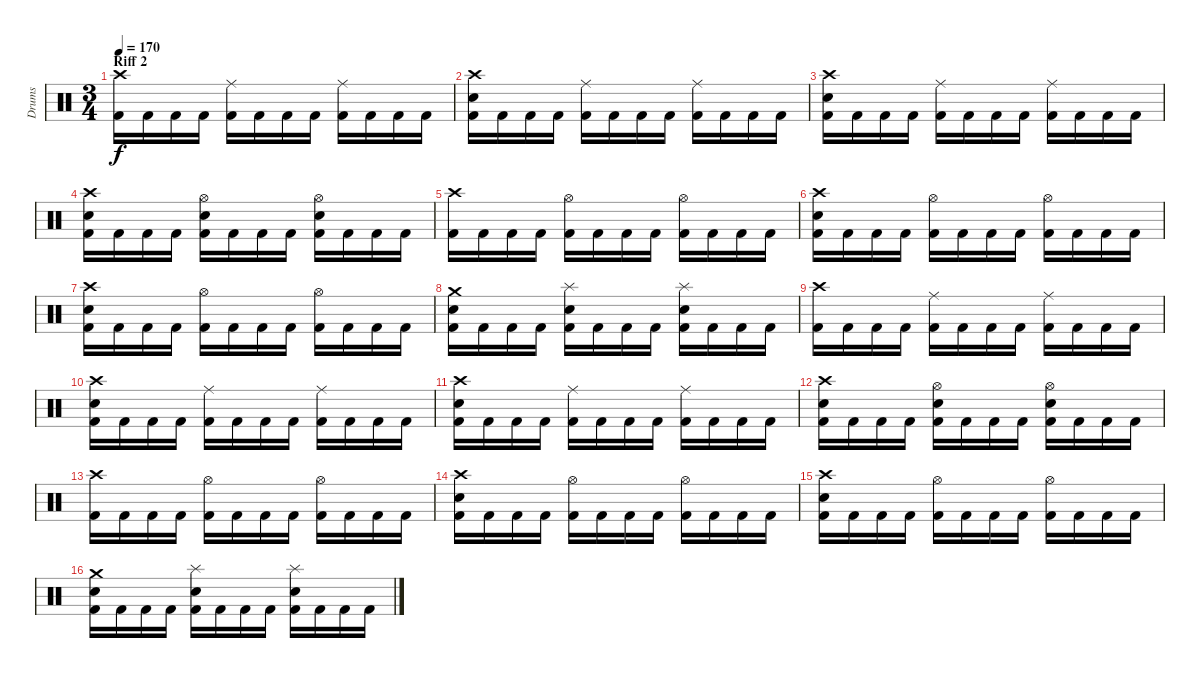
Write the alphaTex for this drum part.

\track ("Drums" "Drums") {instrument percussion}
\staff {score}
\articulation defaults
\ts (3 4)
\section ("" "Riff 2")
\tempo 170
\clef neutral
\ks c
("Crash high (hit)" "Kick (hit) 2").16{dy f} "Kick (hit) 2".16 "Kick (hit) 2".16 "Kick (hit) 2".16 ("Ride (middle)" "Kick (hit) 2").16 "Kick (hit) 2".16 "Kick (hit) 2".16 "Kick (hit) 2".16 ("Ride (middle)" "Kick (hit) 2").16 "Kick (hit) 2".16 "Kick (hit) 2".16 "Kick (hit) 2".16 |
("Crash high (hit)" "Electric Snare (hit)" "Kick (hit) 2").16 "Kick (hit) 2".16 "Kick (hit) 2".16 "Kick (hit) 2".16 ("Ride (middle)" "Kick (hit) 2").16 "Kick (hit) 2".16 "Kick (hit) 2".16 "Kick (hit) 2".16 ("Ride (middle)" "Kick (hit) 2").16 "Kick (hit) 2".16 "Kick (hit) 2".16 "Kick (hit) 2".16 |
("Crash high (hit)" "Electric Snare (hit)" "Kick (hit) 2").16 "Kick (hit) 2".16 "Kick (hit) 2".16 "Kick (hit) 2".16 ("Ride (middle)" "Kick (hit) 2").16 "Kick (hit) 2".16 "Kick (hit) 2".16 "Kick (hit) 2".16 ("Ride (middle)" "Kick (hit) 2").16 "Kick (hit) 2".16 "Kick (hit) 2".16 "Kick (hit) 2".16 |
("Crash high (hit)" "Electric Snare (hit)" "Kick (hit) 2").16 "Kick (hit) 2".16 "Kick (hit) 2".16 "Kick (hit) 2".16 ("Hi-Hat (open)" "Electric Snare (hit)" "Kick (hit) 2").16 "Kick (hit) 2".16 "Kick (hit) 2".16 "Kick (hit) 2".16 ("Hi-Hat (open)" "Electric Snare (hit)" "Kick (hit) 2").16 "Kick (hit) 2".16 "Kick (hit) 2".16 "Kick (hit) 2".16 |
("Crash high (hit)" "Kick (hit) 2").16 "Kick (hit) 2".16 "Kick (hit) 2".16 "Kick (hit) 2".16 ("Hi-Hat (open)" "Kick (hit) 2").16 "Kick (hit) 2".16 "Kick (hit) 2".16 "Kick (hit) 2".16 ("Hi-Hat (open)" "Kick (hit) 2").16 "Kick (hit) 2".16 "Kick (hit) 2".16 "Kick (hit) 2".16 |
("Crash high (hit)" "Electric Snare (hit)" "Kick (hit) 2").16 "Kick (hit) 2".16 "Kick (hit) 2".16 "Kick (hit) 2".16 ("Hi-Hat (open)" "Kick (hit) 2").16 "Kick (hit) 2".16 "Kick (hit) 2".16 "Kick (hit) 2".16 ("Hi-Hat (open)" "Kick (hit) 2").16 "Kick (hit) 2".16 "Kick (hit) 2".16 "Kick (hit) 2".16 |
("Crash high (hit)" "Electric Snare (hit)" "Kick (hit) 2").16 "Kick (hit) 2".16 "Kick (hit) 2".16 "Kick (hit) 2".16 ("Hi-Hat (open)" "Kick (hit) 2").16 "Kick (hit) 2".16 "Kick (hit) 2".16 "Kick (hit) 2".16 ("Hi-Hat (open)" "Kick (hit) 2").16 "Kick (hit) 2".16 "Kick (hit) 2".16 "Kick (hit) 2".16 |
("Crash medium (hit)" "Electric Snare (hit)" "Kick (hit) 2").16 "Kick (hit) 2".16 "Kick (hit) 2".16 "Kick (hit) 2".16 ("Splash (hit)" "Electric Snare (hit)" "Kick (hit) 2").16 "Kick (hit) 2".16 "Kick (hit) 2".16 "Kick (hit) 2".16 ("Splash (hit)" "Electric Snare (hit)" "Kick (hit) 2").16 "Kick (hit) 2".16 "Kick (hit) 2".16 "Kick (hit) 2".16 |
("Crash high (hit)" "Kick (hit) 2").16 "Kick (hit) 2".16 "Kick (hit) 2".16 "Kick (hit) 2".16 ("Ride (middle)" "Kick (hit) 2").16 "Kick (hit) 2".16 "Kick (hit) 2".16 "Kick (hit) 2".16 ("Ride (middle)" "Kick (hit) 2").16 "Kick (hit) 2".16 "Kick (hit) 2".16 "Kick (hit) 2".16 |
("Crash high (hit)" "Electric Snare (hit)" "Kick (hit) 2").16 "Kick (hit) 2".16 "Kick (hit) 2".16 "Kick (hit) 2".16 ("Ride (middle)" "Kick (hit) 2").16 "Kick (hit) 2".16 "Kick (hit) 2".16 "Kick (hit) 2".16 ("Ride (middle)" "Kick (hit) 2").16 "Kick (hit) 2".16 "Kick (hit) 2".16 "Kick (hit) 2".16 |
("Crash high (hit)" "Electric Snare (hit)" "Kick (hit) 2").16 "Kick (hit) 2".16 "Kick (hit) 2".16 "Kick (hit) 2".16 ("Ride (middle)" "Kick (hit) 2").16 "Kick (hit) 2".16 "Kick (hit) 2".16 "Kick (hit) 2".16 ("Ride (middle)" "Kick (hit) 2").16 "Kick (hit) 2".16 "Kick (hit) 2".16 "Kick (hit) 2".16 |
("Crash high (hit)" "Electric Snare (hit)" "Kick (hit) 2").16 "Kick (hit) 2".16 "Kick (hit) 2".16 "Kick (hit) 2".16 ("Hi-Hat (open)" "Electric Snare (hit)" "Kick (hit) 2").16 "Kick (hit) 2".16 "Kick (hit) 2".16 "Kick (hit) 2".16 ("Hi-Hat (open)" "Electric Snare (hit)" "Kick (hit) 2").16 "Kick (hit) 2".16 "Kick (hit) 2".16 "Kick (hit) 2".16 |
("Crash high (hit)" "Kick (hit) 2").16 "Kick (hit) 2".16 "Kick (hit) 2".16 "Kick (hit) 2".16 ("Hi-Hat (open)" "Kick (hit) 2").16 "Kick (hit) 2".16 "Kick (hit) 2".16 "Kick (hit) 2".16 ("Hi-Hat (open)" "Kick (hit) 2").16 "Kick (hit) 2".16 "Kick (hit) 2".16 "Kick (hit) 2".16 |
("Crash high (hit)" "Electric Snare (hit)" "Kick (hit) 2").16 "Kick (hit) 2".16 "Kick (hit) 2".16 "Kick (hit) 2".16 ("Hi-Hat (open)" "Kick (hit) 2").16 "Kick (hit) 2".16 "Kick (hit) 2".16 "Kick (hit) 2".16 ("Hi-Hat (open)" "Kick (hit) 2").16 "Kick (hit) 2".16 "Kick (hit) 2".16 "Kick (hit) 2".16 |
("Crash high (hit)" "Electric Snare (hit)" "Kick (hit) 2").16 "Kick (hit) 2".16 "Kick (hit) 2".16 "Kick (hit) 2".16 ("Hi-Hat (open)" "Kick (hit) 2").16 "Kick (hit) 2".16 "Kick (hit) 2".16 "Kick (hit) 2".16 ("Hi-Hat (open)" "Kick (hit) 2").16 "Kick (hit) 2".16 "Kick (hit) 2".16 "Kick (hit) 2".16 |
("Crash medium (hit)" "Electric Snare (hit)" "Kick (hit) 2").16 "Kick (hit) 2".16 "Kick (hit) 2".16 "Kick (hit) 2".16 ("Splash (hit)" "Electric Snare (hit)" "Kick (hit) 2").16 "Kick (hit) 2".16 "Kick (hit) 2".16 "Kick (hit) 2".16 ("Splash (hit)" "Electric Snare (hit)" "Kick (hit) 2").16 "Kick (hit) 2".16 "Kick (hit) 2".16 "Kick (hit) 2".16
